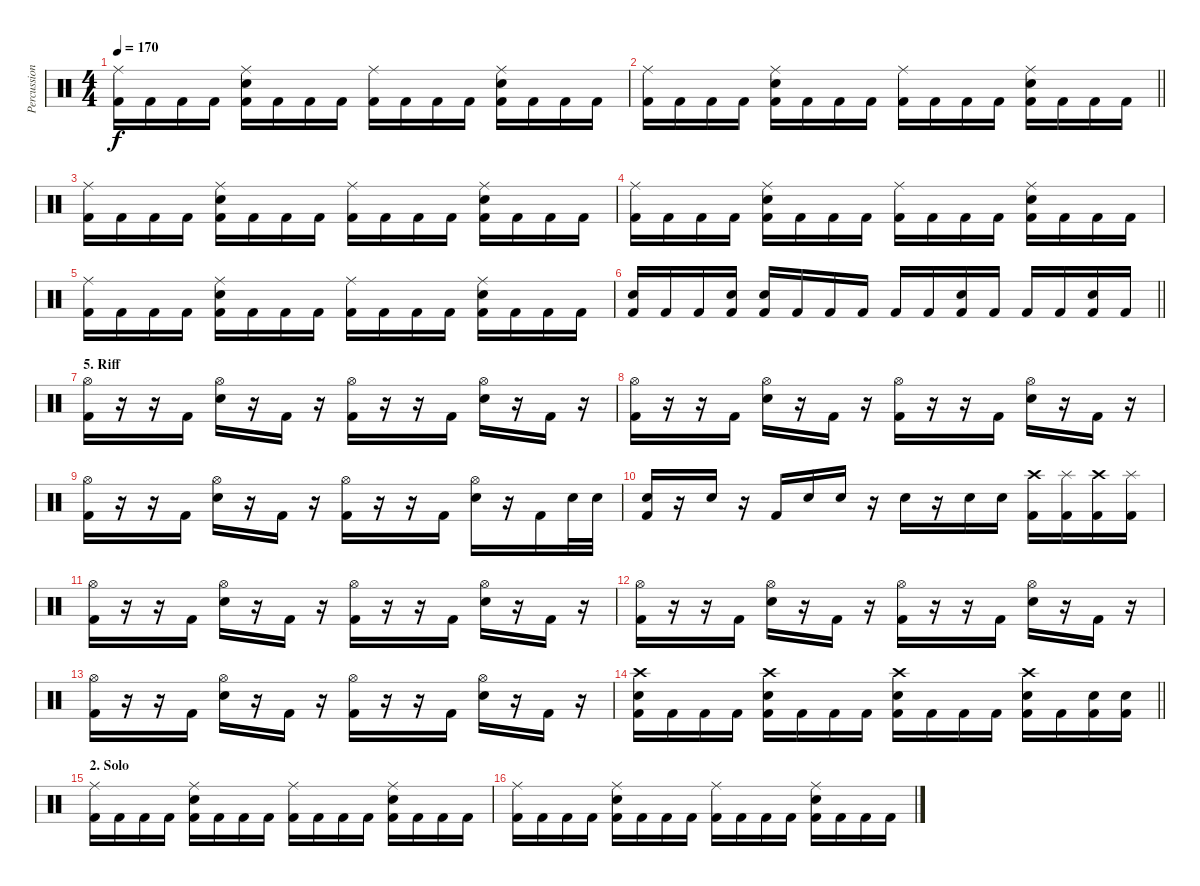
\track ("Percussion" "Percussion") {instrument percussion}
\staff {score}
\articulation defaults
\ts (4 4)
\tempo 170
\clef neutral
\ks c
("Ride (middle)" "Kick (hit) 2").16{dy f} "Kick (hit) 2".16 "Kick (hit) 2".16 "Kick (hit) 2".16 ("Ride (middle)" "Snare (hit) 2" "Kick (hit) 2").16 "Kick (hit) 2".16 "Kick (hit) 2".16 "Kick (hit) 2".16 ("Ride (middle)" "Kick (hit) 2").16 "Kick (hit) 2".16 "Kick (hit) 2".16 "Kick (hit) 2".16 ("Ride (middle)" "Snare (hit) 2" "Kick (hit) 2").16 "Kick (hit) 2".16 "Kick (hit) 2".16 "Kick (hit) 2".16 |
\barLineRight lightlight
("Ride (middle)" "Kick (hit) 2").16 "Kick (hit) 2".16 "Kick (hit) 2".16 "Kick (hit) 2".16 ("Ride (middle)" "Snare (hit) 2" "Kick (hit) 2").16 "Kick (hit) 2".16 "Kick (hit) 2".16 "Kick (hit) 2".16 ("Ride (middle)" "Kick (hit) 2").16 "Kick (hit) 2".16 "Kick (hit) 2".16 "Kick (hit) 2".16 ("Ride (middle)" "Snare (hit) 2" "Kick (hit) 2").16 "Kick (hit) 2".16 "Kick (hit) 2".16 "Kick (hit) 2".16 |
("Ride (middle)" "Kick (hit) 2").16 "Kick (hit) 2".16 "Kick (hit) 2".16 "Kick (hit) 2".16 ("Ride (middle)" "Snare (hit) 2" "Kick (hit) 2").16 "Kick (hit) 2".16 "Kick (hit) 2".16 "Kick (hit) 2".16 ("Ride (middle)" "Kick (hit) 2").16 "Kick (hit) 2".16 "Kick (hit) 2".16 "Kick (hit) 2".16 ("Ride (middle)" "Snare (hit) 2" "Kick (hit) 2").16 "Kick (hit) 2".16 "Kick (hit) 2".16 "Kick (hit) 2".16 |
("Ride (middle)" "Kick (hit) 2").16 "Kick (hit) 2".16 "Kick (hit) 2".16 "Kick (hit) 2".16 ("Ride (middle)" "Snare (hit) 2" "Kick (hit) 2").16 "Kick (hit) 2".16 "Kick (hit) 2".16 "Kick (hit) 2".16 ("Ride (middle)" "Kick (hit) 2").16 "Kick (hit) 2".16 "Kick (hit) 2".16 "Kick (hit) 2".16 ("Ride (middle)" "Snare (hit) 2" "Kick (hit) 2").16 "Kick (hit) 2".16 "Kick (hit) 2".16 "Kick (hit) 2".16 |
("Ride (middle)" "Kick (hit) 2").16 "Kick (hit) 2".16 "Kick (hit) 2".16 "Kick (hit) 2".16 ("Ride (middle)" "Snare (hit) 2" "Kick (hit) 2").16 "Kick (hit) 2".16 "Kick (hit) 2".16 "Kick (hit) 2".16 ("Ride (middle)" "Kick (hit) 2").16 "Kick (hit) 2".16 "Kick (hit) 2".16 "Kick (hit) 2".16 ("Ride (middle)" "Snare (hit) 2" "Kick (hit) 2").16 "Kick (hit) 2".16 "Kick (hit) 2".16 "Kick (hit) 2".16 |
\barLineRight lightlight
("Snare (hit) 2" "Kick (hit) 2").16 "Kick (hit) 2".16 "Kick (hit) 2".16 ("Snare (hit) 2" "Kick (hit) 2").16 ("Snare (hit) 2" "Kick (hit) 2").16 "Kick (hit) 2".16 "Kick (hit) 2".16 "Kick (hit) 2".16 "Kick (hit) 2".16 "Kick (hit) 2".16 ("Snare (hit) 2" "Kick (hit) 2").16 "Kick (hit) 2".16 "Kick (hit) 2".16 "Kick (hit) 2".16 ("Snare (hit) 2" "Kick (hit) 2").16 "Kick (hit) 2".16 |
\section ("" "5. Riff")
("Hi-Hat (open)" "Kick (hit) 2").16 r.16 r.16 "Kick (hit) 2".16 ("Hi-Hat (open)" "Snare (hit) 2").16 r.16 "Kick (hit) 2".16 r.16 ("Hi-Hat (open)" "Kick (hit) 2").16 r.16 r.16 "Kick (hit) 2".16 ("Hi-Hat (open)" "Snare (hit) 2").16 r.16 "Kick (hit) 2".16 r.16 |
("Hi-Hat (open)" "Kick (hit) 2").16 r.16 r.16 "Kick (hit) 2".16 ("Hi-Hat (open)" "Snare (hit) 2").16 r.16 "Kick (hit) 2".16 r.16 ("Hi-Hat (open)" "Kick (hit) 2").16 r.16 r.16 "Kick (hit) 2".16 ("Hi-Hat (open)" "Snare (hit) 2").16 r.16 "Kick (hit) 2".16 r.16 |
("Hi-Hat (open)" "Kick (hit) 2").16 r.16 r.16 "Kick (hit) 2".16 ("Hi-Hat (open)" "Snare (hit) 2").16 r.16 "Kick (hit) 2".16 r.16 ("Hi-Hat (open)" "Kick (hit) 2").16 r.16 r.16 "Kick (hit) 2".16 ("Hi-Hat (open)" "Snare (hit) 2").16 r.16 "Kick (hit) 2".16 "Snare (hit) 2".32 "Snare (hit) 2".32 |
("Snare (hit) 2" "Kick (hit) 2").16 r.16 "Snare (hit) 2".16 r.16 "Kick (hit) 2".16 "Snare (hit) 2".16 "Snare (hit) 2".16 r.16 "Snare (hit) 2".16 r.16 "Snare (hit) 2".16 "Snare (hit) 2".16 ("Crash high (hit)" "Kick (hit) 2").16 ("Splash (hit)" "Kick (hit) 2").16 ("Crash high (hit)" "Kick (hit) 2").16 ("Splash (hit)" "Kick (hit) 2").16 |
("Hi-Hat (open)" "Kick (hit) 2").16 r.16 r.16 "Kick (hit) 2".16 ("Hi-Hat (open)" "Snare (hit) 2").16 r.16 "Kick (hit) 2".16 r.16 ("Hi-Hat (open)" "Kick (hit) 2").16 r.16 r.16 "Kick (hit) 2".16 ("Hi-Hat (open)" "Snare (hit) 2").16 r.16 "Kick (hit) 2".16 r.16 |
("Hi-Hat (open)" "Kick (hit) 2").16 r.16 r.16 "Kick (hit) 2".16 ("Hi-Hat (open)" "Snare (hit) 2").16 r.16 "Kick (hit) 2".16 r.16 ("Hi-Hat (open)" "Kick (hit) 2").16 r.16 r.16 "Kick (hit) 2".16 ("Hi-Hat (open)" "Snare (hit) 2").16 r.16 "Kick (hit) 2".16 r.16 |
("Hi-Hat (open)" "Kick (hit) 2").16 r.16 r.16 "Kick (hit) 2".16 ("Hi-Hat (open)" "Snare (hit) 2").16 r.16 "Kick (hit) 2".16 r.16 ("Hi-Hat (open)" "Kick (hit) 2").16 r.16 r.16 "Kick (hit) 2".16 ("Hi-Hat (open)" "Snare (hit) 2").16 r.16 "Kick (hit) 2".16 r.16 |
\barLineRight lightlight
("Crash high (hit)" "Snare (hit) 2" "Kick (hit) 2").16 "Kick (hit) 2".16 "Kick (hit) 2".16 "Kick (hit) 2".16 ("Crash high (hit)" "Snare (hit) 2" "Kick (hit) 2").16 "Kick (hit) 2".16 "Kick (hit) 2".16 "Kick (hit) 2".16 ("Crash high (hit)" "Snare (hit) 2" "Kick (hit) 2").16 "Kick (hit) 2".16 "Kick (hit) 2".16 "Kick (hit) 2".16 ("Crash high (hit)" "Snare (hit) 2" "Kick (hit) 2").16 "Kick (hit) 2".16 ("Snare (hit) 2" "Kick (hit) 2").16 ("Snare (hit) 2" "Kick (hit) 2").16 |
\section ("" "2. Solo")
("Ride (middle)" "Kick (hit) 2").16 "Kick (hit) 2".16 "Kick (hit) 2".16 "Kick (hit) 2".16 ("Ride (middle)" "Snare (hit) 2" "Kick (hit) 2").16 "Kick (hit) 2".16 "Kick (hit) 2".16 "Kick (hit) 2".16 ("Ride (middle)" "Kick (hit) 2").16 "Kick (hit) 2".16 "Kick (hit) 2".16 "Kick (hit) 2".16 ("Ride (middle)" "Snare (hit) 2" "Kick (hit) 2").16 "Kick (hit) 2".16 "Kick (hit) 2".16 "Kick (hit) 2".16 |
("Ride (middle)" "Kick (hit) 2").16 "Kick (hit) 2".16 "Kick (hit) 2".16 "Kick (hit) 2".16 ("Ride (middle)" "Snare (hit) 2" "Kick (hit) 2").16 "Kick (hit) 2".16 "Kick (hit) 2".16 "Kick (hit) 2".16 ("Ride (middle)" "Kick (hit) 2").16 "Kick (hit) 2".16 "Kick (hit) 2".16 "Kick (hit) 2".16 ("Ride (middle)" "Snare (hit) 2" "Kick (hit) 2").16 "Kick (hit) 2".16 "Kick (hit) 2".16 "Kick (hit) 2".16
